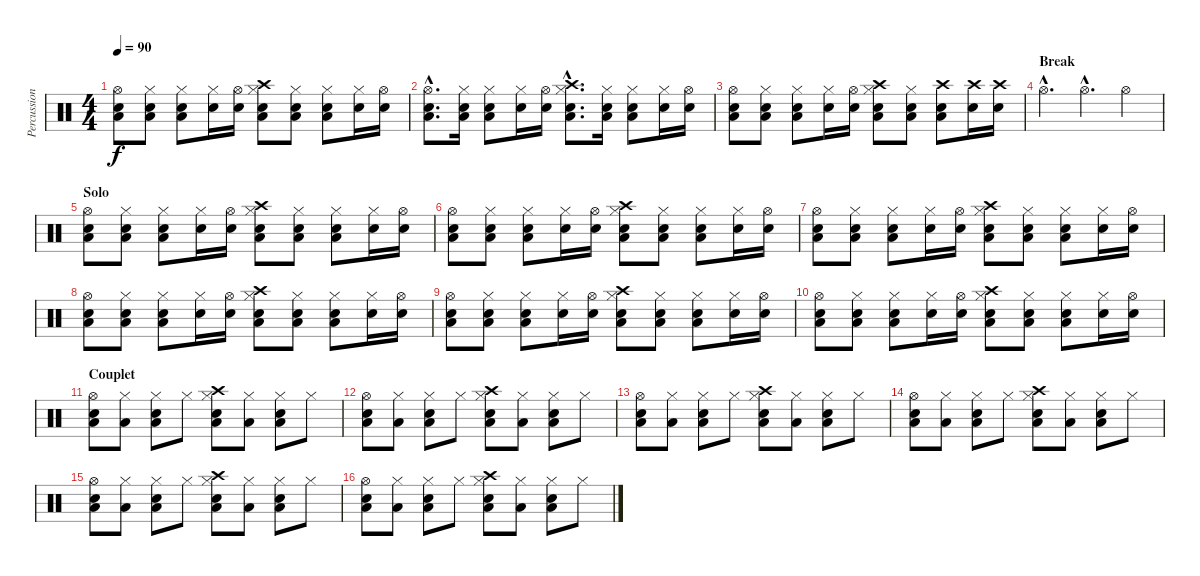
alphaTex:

\track ("Percussions" "Percussion") {instrument percussion}
\staff {score}
\articulation defaults
\ts (4 4)
\tempo 90
\clef neutral
\ks c
("Hi-Hat (open)" "Snare (hit) 2" "Low Floor Tom (hit)").8{dy f} ("Hi-Hat (closed)" "Snare (hit) 2" "Low Floor Tom (hit)").8 ("Hi-Hat (closed)" "Snare (hit) 2" "Low Floor Tom (hit)").8 ("Hi-Hat (closed)" "Snare (hit) 2").16 ("Hi-Hat (open)" "Snare (hit) 2").16 ("Hi-Hat (closed)" "Snare (hit) 2" "Low Floor Tom (hit)" "Crash high (hit)").8 ("Hi-Hat (closed)" "Snare (hit) 2" "Low Floor Tom (hit)").8 ("Hi-Hat (closed)" "Snare (hit) 2" "Low Floor Tom (hit)").8 ("Hi-Hat (closed)" "Snare (hit) 2").16 ("Hi-Hat (open)" "Snare (hit) 2").16 |
("Hi-Hat (open)"{hac} "Snare (hit) 2"{hac} "Low Floor Tom (hit)"{hac}).8{d} ("Hi-Hat (closed)" "Snare (hit) 2" "Low Floor Tom (hit)").16 ("Hi-Hat (closed)" "Snare (hit) 2" "Low Floor Tom (hit)").8 ("Hi-Hat (closed)" "Snare (hit) 2").16 ("Hi-Hat (open)" "Snare (hit) 2").16 ("Hi-Hat (closed)"{hac} "Snare (hit) 2"{hac} "Low Floor Tom (hit)"{hac} "Crash high (hit)"{hac}).8{d} ("Hi-Hat (closed)" "Snare (hit) 2" "Low Floor Tom (hit)").16 ("Hi-Hat (closed)" "Snare (hit) 2" "Low Floor Tom (hit)").8 ("Hi-Hat (closed)" "Snare (hit) 2").16 ("Hi-Hat (open)" "Snare (hit) 2").16 |
("Hi-Hat (open)" "Snare (hit) 2" "Low Floor Tom (hit)").8 ("Hi-Hat (closed)" "Snare (hit) 2" "Low Floor Tom (hit)").8 ("Hi-Hat (closed)" "Snare (hit) 2" "Low Floor Tom (hit)").8 ("Hi-Hat (closed)" "Snare (hit) 2").16 ("Hi-Hat (open)" "Snare (hit) 2").16 ("Hi-Hat (closed)" "Snare (hit) 2" "Low Floor Tom (hit)" "Crash high (hit)").8 ("Hi-Hat (closed)" "Snare (hit) 2" "Low Floor Tom (hit)").8 ("Crash high (hit)" "Snare (hit) 2" "Low Floor Tom (hit)").8 ("Crash high (hit)" "Snare (hit) 2").16 ("Crash high (hit)" "Snare (hit) 2").16 |
\section ("" "Break")
"Hi-Hat (open)"{hac}.4{d} "Hi-Hat (open)"{hac}.4{d} "Hi-Hat (open)".4 |
\section ("" "Solo")
("Hi-Hat (open)" "Snare (hit) 2" "Low Floor Tom (hit)").8 ("Hi-Hat (closed)" "Snare (hit) 2" "Low Floor Tom (hit)").8 ("Hi-Hat (closed)" "Snare (hit) 2" "Low Floor Tom (hit)").8 ("Hi-Hat (closed)" "Snare (hit) 2").16 ("Hi-Hat (open)" "Snare (hit) 2").16 ("Hi-Hat (closed)" "Snare (hit) 2" "Low Floor Tom (hit)" "Crash high (hit)").8 ("Hi-Hat (closed)" "Snare (hit) 2" "Low Floor Tom (hit)").8 ("Hi-Hat (closed)" "Snare (hit) 2" "Low Floor Tom (hit)").8 ("Hi-Hat (closed)" "Snare (hit) 2").16 ("Hi-Hat (open)" "Snare (hit) 2").16 |
("Hi-Hat (open)" "Snare (hit) 2" "Low Floor Tom (hit)").8 ("Hi-Hat (closed)" "Snare (hit) 2" "Low Floor Tom (hit)").8 ("Hi-Hat (closed)" "Snare (hit) 2" "Low Floor Tom (hit)").8 ("Hi-Hat (closed)" "Snare (hit) 2").16 ("Hi-Hat (open)" "Snare (hit) 2").16 ("Hi-Hat (closed)" "Snare (hit) 2" "Low Floor Tom (hit)" "Crash high (hit)").8 ("Hi-Hat (closed)" "Snare (hit) 2" "Low Floor Tom (hit)").8 ("Hi-Hat (closed)" "Snare (hit) 2" "Low Floor Tom (hit)").8 ("Hi-Hat (closed)" "Snare (hit) 2").16 ("Hi-Hat (open)" "Snare (hit) 2").16 |
("Hi-Hat (open)" "Snare (hit) 2" "Low Floor Tom (hit)").8 ("Hi-Hat (closed)" "Snare (hit) 2" "Low Floor Tom (hit)").8 ("Hi-Hat (closed)" "Snare (hit) 2" "Low Floor Tom (hit)").8 ("Hi-Hat (closed)" "Snare (hit) 2").16 ("Hi-Hat (open)" "Snare (hit) 2").16 ("Hi-Hat (closed)" "Snare (hit) 2" "Low Floor Tom (hit)" "Crash high (hit)").8 ("Hi-Hat (closed)" "Snare (hit) 2" "Low Floor Tom (hit)").8 ("Hi-Hat (closed)" "Snare (hit) 2" "Low Floor Tom (hit)").8 ("Hi-Hat (closed)" "Snare (hit) 2").16 ("Hi-Hat (open)" "Snare (hit) 2").16 |
("Hi-Hat (open)" "Snare (hit) 2" "Low Floor Tom (hit)").8 ("Hi-Hat (closed)" "Snare (hit) 2" "Low Floor Tom (hit)").8 ("Hi-Hat (closed)" "Snare (hit) 2" "Low Floor Tom (hit)").8 ("Hi-Hat (closed)" "Snare (hit) 2").16 ("Hi-Hat (open)" "Snare (hit) 2").16 ("Hi-Hat (closed)" "Snare (hit) 2" "Low Floor Tom (hit)" "Crash high (hit)").8 ("Hi-Hat (closed)" "Snare (hit) 2" "Low Floor Tom (hit)").8 ("Hi-Hat (closed)" "Snare (hit) 2" "Low Floor Tom (hit)").8 ("Hi-Hat (closed)" "Snare (hit) 2").16 ("Hi-Hat (open)" "Snare (hit) 2").16 |
("Hi-Hat (open)" "Snare (hit) 2" "Low Floor Tom (hit)").8 ("Hi-Hat (closed)" "Snare (hit) 2" "Low Floor Tom (hit)").8 ("Hi-Hat (closed)" "Snare (hit) 2" "Low Floor Tom (hit)").8 ("Hi-Hat (closed)" "Snare (hit) 2").16 ("Hi-Hat (open)" "Snare (hit) 2").16 ("Hi-Hat (closed)" "Snare (hit) 2" "Low Floor Tom (hit)" "Crash high (hit)").8 ("Hi-Hat (closed)" "Snare (hit) 2" "Low Floor Tom (hit)").8 ("Hi-Hat (closed)" "Snare (hit) 2" "Low Floor Tom (hit)").8 ("Hi-Hat (closed)" "Snare (hit) 2").16 ("Hi-Hat (open)" "Snare (hit) 2").16 |
("Hi-Hat (open)" "Snare (hit) 2" "Low Floor Tom (hit)").8 ("Hi-Hat (closed)" "Snare (hit) 2" "Low Floor Tom (hit)").8 ("Hi-Hat (closed)" "Snare (hit) 2" "Low Floor Tom (hit)").8 ("Hi-Hat (closed)" "Snare (hit) 2").16 ("Hi-Hat (open)" "Snare (hit) 2").16 ("Hi-Hat (closed)" "Snare (hit) 2" "Low Floor Tom (hit)" "Crash high (hit)").8 ("Hi-Hat (closed)" "Snare (hit) 2" "Low Floor Tom (hit)").8 ("Hi-Hat (closed)" "Snare (hit) 2" "Low Floor Tom (hit)").8 ("Hi-Hat (closed)" "Snare (hit) 2").16 ("Hi-Hat (open)" "Snare (hit) 2").16 |
\section ("" "Couplet")
("Hi-Hat (open)" "Snare (hit) 2" "Low Floor Tom (hit)").8 ("Hi-Hat (closed)" "Low Floor Tom (hit)").8 ("Hi-Hat (closed)" "Snare (hit) 2" "Low Floor Tom (hit)").8 "Hi-Hat (closed)".8 ("Hi-Hat (closed)" "Snare (hit) 2" "Low Floor Tom (hit)" "Crash high (hit)").8 ("Hi-Hat (closed)" "Low Floor Tom (hit)").8 ("Hi-Hat (closed)" "Snare (hit) 2" "Low Floor Tom (hit)").8 "Hi-Hat (closed)".8 |
("Hi-Hat (open)" "Snare (hit) 2" "Low Floor Tom (hit)").8 ("Hi-Hat (closed)" "Low Floor Tom (hit)").8 ("Hi-Hat (closed)" "Snare (hit) 2" "Low Floor Tom (hit)").8 "Hi-Hat (closed)".8 ("Hi-Hat (closed)" "Snare (hit) 2" "Low Floor Tom (hit)" "Crash high (hit)").8 ("Hi-Hat (closed)" "Low Floor Tom (hit)").8 ("Hi-Hat (closed)" "Snare (hit) 2" "Low Floor Tom (hit)").8 "Hi-Hat (closed)".8 |
("Hi-Hat (open)" "Snare (hit) 2" "Low Floor Tom (hit)").8 ("Hi-Hat (closed)" "Low Floor Tom (hit)").8 ("Hi-Hat (closed)" "Snare (hit) 2" "Low Floor Tom (hit)").8 "Hi-Hat (closed)".8 ("Hi-Hat (closed)" "Snare (hit) 2" "Low Floor Tom (hit)" "Crash high (hit)").8 ("Hi-Hat (closed)" "Low Floor Tom (hit)").8 ("Hi-Hat (closed)" "Snare (hit) 2" "Low Floor Tom (hit)").8 "Hi-Hat (closed)".8 |
("Hi-Hat (open)" "Snare (hit) 2" "Low Floor Tom (hit)").8 ("Hi-Hat (closed)" "Low Floor Tom (hit)").8 ("Hi-Hat (closed)" "Snare (hit) 2" "Low Floor Tom (hit)").8 "Hi-Hat (closed)".8 ("Hi-Hat (closed)" "Snare (hit) 2" "Low Floor Tom (hit)" "Crash high (hit)").8 ("Hi-Hat (closed)" "Low Floor Tom (hit)").8 ("Hi-Hat (closed)" "Snare (hit) 2" "Low Floor Tom (hit)").8 "Hi-Hat (closed)".8 |
("Hi-Hat (open)" "Snare (hit) 2" "Low Floor Tom (hit)").8 ("Hi-Hat (closed)" "Low Floor Tom (hit)").8 ("Hi-Hat (closed)" "Snare (hit) 2" "Low Floor Tom (hit)").8 "Hi-Hat (closed)".8 ("Hi-Hat (closed)" "Snare (hit) 2" "Low Floor Tom (hit)" "Crash high (hit)").8 ("Hi-Hat (closed)" "Low Floor Tom (hit)").8 ("Hi-Hat (closed)" "Snare (hit) 2" "Low Floor Tom (hit)").8 "Hi-Hat (closed)".8 |
("Hi-Hat (open)" "Snare (hit) 2" "Low Floor Tom (hit)").8 ("Hi-Hat (closed)" "Low Floor Tom (hit)").8 ("Hi-Hat (closed)" "Snare (hit) 2" "Low Floor Tom (hit)").8 "Hi-Hat (closed)".8 ("Hi-Hat (closed)" "Snare (hit) 2" "Low Floor Tom (hit)" "Crash high (hit)").8 ("Hi-Hat (closed)" "Low Floor Tom (hit)").8 ("Hi-Hat (closed)" "Snare (hit) 2" "Low Floor Tom (hit)").8 "Hi-Hat (closed)".8
